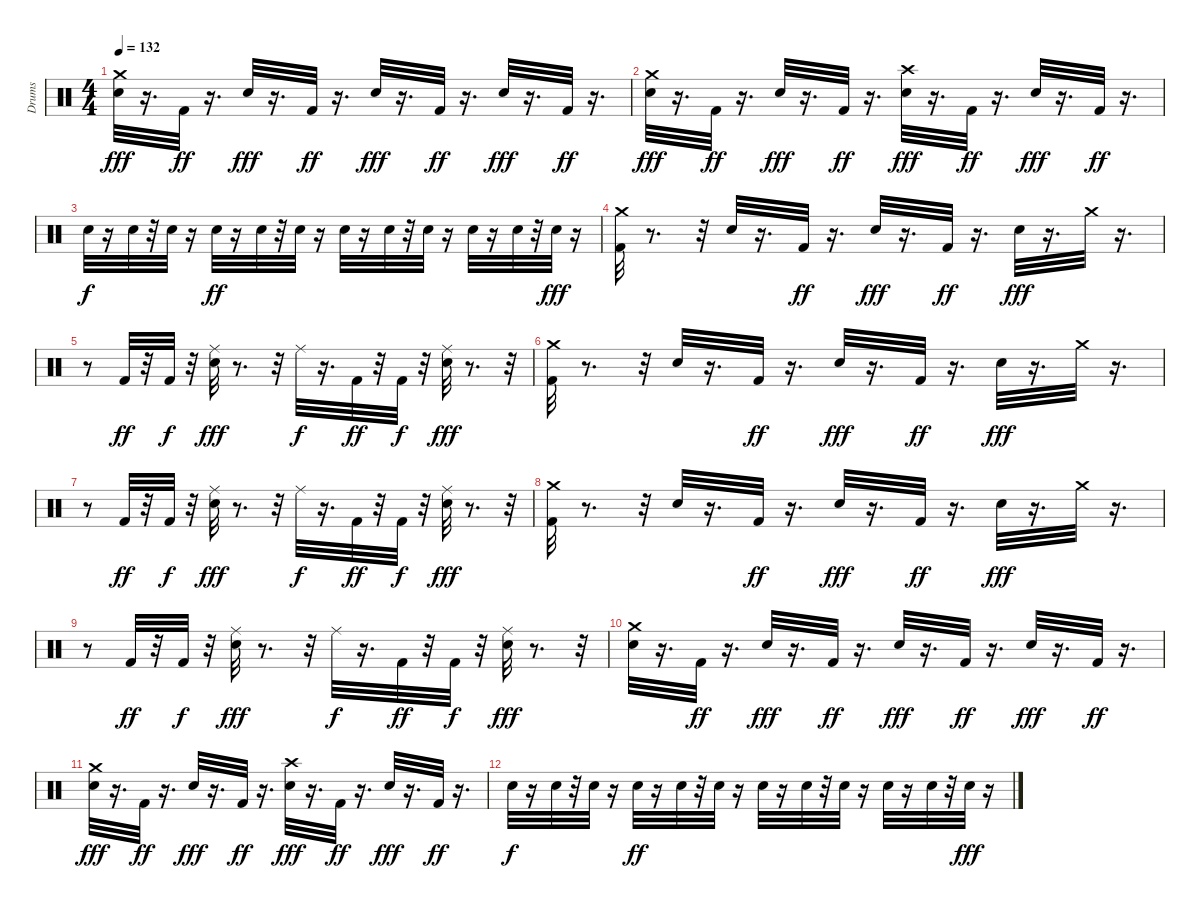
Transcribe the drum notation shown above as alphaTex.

\track ("Drums" "Drums") {instrument percussion}
\staff {score}
\articulation defaults
\ts (4 4)
\tempo 132
\clef neutral
\ks c
("Crash medium (hit)" "Snare (hit) 2").32{dy fff} r.16{d} "Kick (hit) 2".32{dy ff} r.16{d} "Snare (hit) 2".32{dy fff} r.16{d} "Kick (hit) 2".32{dy ff} r.16{d} "Snare (hit) 2".32{dy fff} r.16{d} "Kick (hit) 2".32{dy ff} r.16{d} "Snare (hit) 2".32{dy fff} r.16{d} "Kick (hit) 2".32{dy ff} r.16{d} |
("Snare (hit) 2" "Crash medium (hit)").32{dy fff} r.16{d} "Kick (hit) 2".32{dy ff} r.16{d} "Snare (hit) 2".32{dy fff} r.16{d} "Kick (hit) 2".32{dy ff} r.16{d} ("Crash high (hit)" "Snare (hit) 2").32{dy fff} r.16{d} "Kick (hit) 2".32{dy ff} r.16{d} "Snare (hit) 2".32{dy fff} r.16{d} "Kick (hit) 2".32{dy ff} r.16{d} |
"Snare (hit) 2".32{dy f} r.16 "Snare (hit) 2".32 r.32 "Snare (hit) 2".32 r.16 "Snare (hit) 2".32{dy ff} r.16 "Snare (hit) 2".32 r.32 "Snare (hit) 2".32 r.16 "Snare (hit) 2".32 r.16 "Snare (hit) 2".32 r.32 "Snare (hit) 2".32 r.16 "Snare (hit) 2".32 r.16 "Snare (hit) 2".32 r.32 "Snare (hit) 2".32{dy fff} r.16 |
("Kick (hit) 2" "Crash medium (hit)").32 r.8{d} r.32 "Snare (hit) 2".32 r.16{d} "Kick (hit) 2".32{dy ff} r.16{d} "Snare (hit) 2".32{dy fff} r.16{d} "Kick (hit) 2".32{dy ff} r.16{d} "Snare (hit) 2".32{dy fff} r.16{d} "Crash medium (hit)".32 r.16{d} |
r.8 "Kick (hit) 2".32{dy ff} r.32 "Kick (hit) 2".32{dy f} r.32 ("Ride (middle)" "Snare (hit) 2").32{dy fff} r.8{d} r.32 "Ride (middle)".32{dy f} r.16{d} "Kick (hit) 2".32{dy ff} r.32 "Kick (hit) 2".32{dy f} r.32 ("Ride (middle)" "Snare (hit) 2").32{dy fff} r.8{d} r.32 |
("Kick (hit) 2" "Crash medium (hit)").32 r.8{d} r.32 "Snare (hit) 2".32 r.16{d} "Kick (hit) 2".32{dy ff} r.16{d} "Snare (hit) 2".32{dy fff} r.16{d} "Kick (hit) 2".32{dy ff} r.16{d} "Snare (hit) 2".32{dy fff} r.16{d} "Crash medium (hit)".32 r.16{d} |
r.8 "Kick (hit) 2".32{dy ff} r.32 "Kick (hit) 2".32{dy f} r.32 ("Ride (middle)" "Snare (hit) 2").32{dy fff} r.8{d} r.32 "Ride (middle)".32{dy f} r.16{d} "Kick (hit) 2".32{dy ff} r.32 "Kick (hit) 2".32{dy f} r.32 ("Ride (middle)" "Snare (hit) 2").32{dy fff} r.8{d} r.32 |
("Kick (hit) 2" "Crash medium (hit)").32 r.8{d} r.32 "Snare (hit) 2".32 r.16{d} "Kick (hit) 2".32{dy ff} r.16{d} "Snare (hit) 2".32{dy fff} r.16{d} "Kick (hit) 2".32{dy ff} r.16{d} "Snare (hit) 2".32{dy fff} r.16{d} "Crash medium (hit)".32 r.16{d} |
r.8 "Kick (hit) 2".32{dy ff} r.32 "Kick (hit) 2".32{dy f} r.32 ("Ride (middle)" "Snare (hit) 2").32{dy fff} r.8{d} r.32 "Ride (middle)".32{dy f} r.16{d} "Kick (hit) 2".32{dy ff} r.32 "Kick (hit) 2".32{dy f} r.32 ("Ride (middle)" "Snare (hit) 2").32{dy fff} r.8{d} r.32 |
("Crash medium (hit)" "Snare (hit) 2").32{volume 16} r.16{d} "Kick (hit) 2".32{dy ff volume 16} r.16{d} "Snare (hit) 2".32{dy fff volume 15} r.16{d} "Kick (hit) 2".32{dy ff volume 15} r.16{d} "Snare (hit) 2".32{dy fff volume 15} r.16{d} "Kick (hit) 2".32{dy ff volume 14} r.16{d} "Snare (hit) 2".32{dy fff volume 14} r.16{d} "Kick (hit) 2".32{dy ff volume 14} r.16{d} |
("Snare (hit) 2" "Crash medium (hit)").32{dy fff volume 13} r.16{d} "Kick (hit) 2".32{dy ff volume 12} r.16{d} "Snare (hit) 2".32{dy fff volume 12} r.16{d} "Kick (hit) 2".32{dy ff volume 11} r.16{d} ("Crash high (hit)" "Snare (hit) 2").32{dy fff volume 11} r.16{d} "Kick (hit) 2".32{dy ff volume 10} r.16{d} "Snare (hit) 2".32{dy fff volume 9} r.16{d} "Kick (hit) 2".32{dy ff volume 8} r.16{d} |
"Snare (hit) 2".32{dy f volume 7} r.16 "Snare (hit) 2".32{volume 7} r.32 "Snare (hit) 2".32{volume 6} r.16 "Snare (hit) 2".32{dy ff volume 6} r.16 "Snare (hit) 2".32{volume 5} r.32 "Snare (hit) 2".32{volume 5} r.16 "Snare (hit) 2".32{volume 4} r.16 "Snare (hit) 2".32{volume 4} r.32 "Snare (hit) 2".32{volume 2} r.16 "Snare (hit) 2".32{volume 2} r.16 "Snare (hit) 2".32{volume 1} r.32 "Snare (hit) 2".32{dy fff volume 0} r.16
